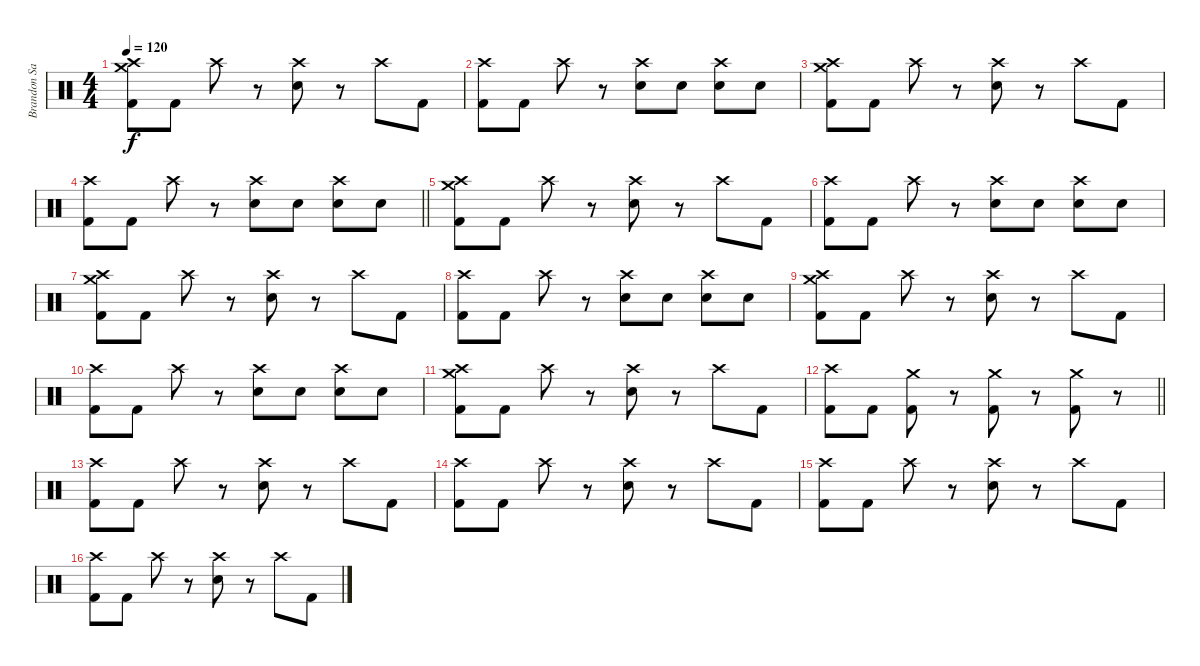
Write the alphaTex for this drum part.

\track ("Brandon Saller" "Brandon Sa") {instrument percussion}
\staff {score}
\articulation defaults
\ts (4 4)
\tempo 120
\clef neutral
\ks c
("Crash high (hit)" "Crash medium (hit)" "Kick (hit) 2").8{dy f} "Kick (hit) 2".8 "Crash high (hit)".8 r.8 ("Crash high (hit)" "Electric Snare (hit)").8 r.8 "Crash high (hit)".8 "Kick (hit) 2".8 |
("Crash high (hit)" "Kick (hit) 2").8 "Kick (hit) 2".8 "Crash high (hit)".8 r.8 ("Crash high (hit)" "Electric Snare (hit)").8 "Electric Snare (hit)".8 ("Crash high (hit)" "Electric Snare (hit)").8 "Electric Snare (hit)".8 |
("Crash high (hit)" "Crash medium (hit)" "Kick (hit) 2").8 "Kick (hit) 2".8 "Crash high (hit)".8 r.8 ("Crash high (hit)" "Electric Snare (hit)").8 r.8 "Crash high (hit)".8 "Kick (hit) 2".8 |
\barLineRight lightlight
("Crash high (hit)" "Kick (hit) 2").8 "Kick (hit) 2".8 "Crash high (hit)".8 r.8 ("Crash high (hit)" "Electric Snare (hit)").8 "Electric Snare (hit)".8 ("Crash high (hit)" "Electric Snare (hit)").8 "Electric Snare (hit)".8 |
("Crash high (hit)" "Crash medium (hit)" "Kick (hit) 2").8 "Kick (hit) 2".8 "Crash high (hit)".8 r.8 ("Crash high (hit)" "Electric Snare (hit)").8 r.8 "Crash high (hit)".8 "Kick (hit) 2".8 |
("Crash high (hit)" "Kick (hit) 2").8 "Kick (hit) 2".8 "Crash high (hit)".8 r.8 ("Crash high (hit)" "Electric Snare (hit)").8 "Electric Snare (hit)".8 ("Crash high (hit)" "Electric Snare (hit)").8 "Electric Snare (hit)".8 |
("Crash high (hit)" "Crash medium (hit)" "Kick (hit) 2").8 "Kick (hit) 2".8 "Crash high (hit)".8 r.8 ("Crash high (hit)" "Electric Snare (hit)").8 r.8 "Crash high (hit)".8 "Kick (hit) 2".8 |
("Crash high (hit)" "Kick (hit) 2").8 "Kick (hit) 2".8 "Crash high (hit)".8 r.8 ("Crash high (hit)" "Electric Snare (hit)").8 "Electric Snare (hit)".8 ("Crash high (hit)" "Electric Snare (hit)").8 "Electric Snare (hit)".8 |
("Crash high (hit)" "Crash medium (hit)" "Kick (hit) 2").8 "Kick (hit) 2".8 "Crash high (hit)".8 r.8 ("Crash high (hit)" "Electric Snare (hit)").8 r.8 "Crash high (hit)".8 "Kick (hit) 2".8 |
("Crash high (hit)" "Kick (hit) 2").8 "Kick (hit) 2".8 "Crash high (hit)".8 r.8 ("Crash high (hit)" "Electric Snare (hit)").8 "Electric Snare (hit)".8 ("Crash high (hit)" "Electric Snare (hit)").8 "Electric Snare (hit)".8 |
("Crash high (hit)" "Crash medium (hit)" "Kick (hit) 2").8 "Kick (hit) 2".8 "Crash high (hit)".8 r.8 ("Crash high (hit)" "Electric Snare (hit)").8 r.8 "Crash high (hit)".8 "Kick (hit) 2".8 |
\barLineRight lightlight
("Crash high (hit)" "Kick (hit) 2").8 "Kick (hit) 2".8 ("Crash medium (hit)" "Kick (hit) 2").8{volume 16} r.8 ("Crash medium (hit)" "Kick (hit) 2").8 r.8 ("Crash medium (hit)" "Kick (hit) 2").8 r.8 |
("Crash high (hit)" "Kick (hit) 2").8{volume 14} "Kick (hit) 2".8 "Crash high (hit)".8 r.8 ("Crash high (hit)" "Electric Snare (hit)").8 r.8 "Crash high (hit)".8 "Kick (hit) 2".8 |
("Crash high (hit)" "Kick (hit) 2").8 "Kick (hit) 2".8 "Crash high (hit)".8 r.8 ("Crash high (hit)" "Electric Snare (hit)").8 r.8 "Crash high (hit)".8 "Kick (hit) 2".8 |
("Crash high (hit)" "Kick (hit) 2").8 "Kick (hit) 2".8 "Crash high (hit)".8 r.8 ("Crash high (hit)" "Electric Snare (hit)").8 r.8 "Crash high (hit)".8 "Kick (hit) 2".8 |
("Crash high (hit)" "Kick (hit) 2").8 "Kick (hit) 2".8 "Crash high (hit)".8 r.8 ("Crash high (hit)" "Electric Snare (hit)").8 r.8 "Crash high (hit)".8 "Kick (hit) 2".8
